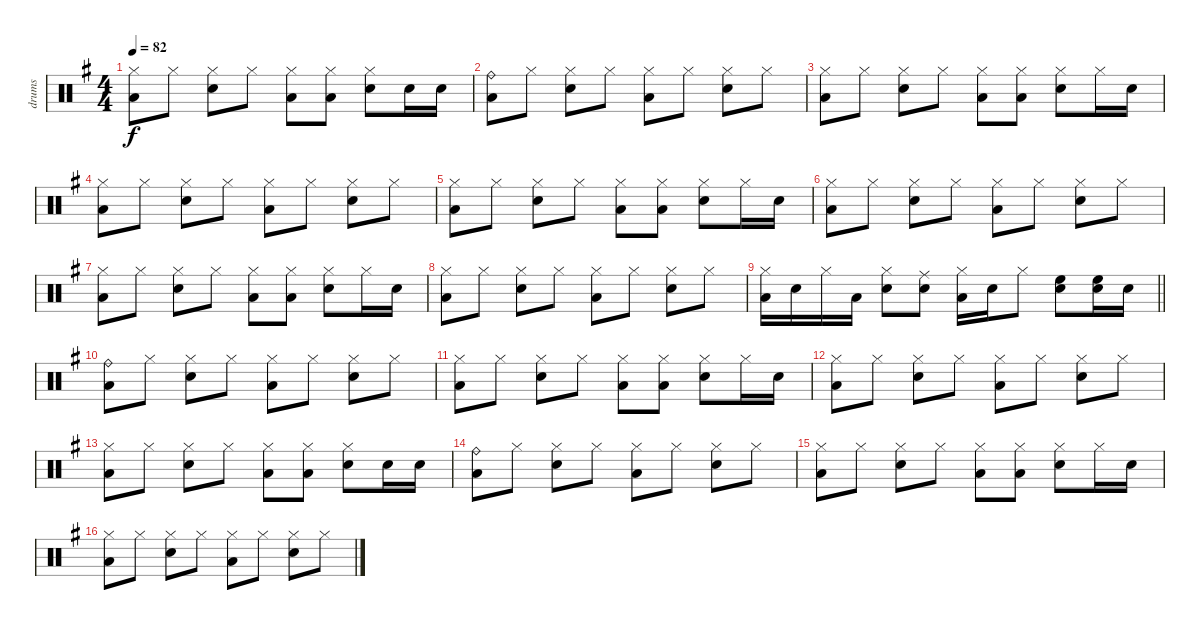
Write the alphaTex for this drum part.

\track ("drums" "drums") {instrument percussion}
\staff {score}
\articulation defaults
\ts (4 4)
\tempo 82
\clef neutral
\ks g
("Hi-Hat (closed)" "Low Floor Tom (hit)").8{dy f} "Hi-Hat (closed)".8 ("Hi-Hat (closed)" "Electric Snare (hit)").8 "Hi-Hat (closed)".8 ("Hi-Hat (closed)" "Low Floor Tom (hit)").8 ("Hi-Hat (closed)" "Low Floor Tom (hit)").8 ("Hi-Hat (closed)" "Electric Snare (hit)").8 "Electric Snare (hit)".16 "Electric Snare (hit)".16 |
("Ride (bell)" "Low Floor Tom (hit)").8 "Hi-Hat (closed)".8 ("Hi-Hat (closed)" "Electric Snare (hit)").8 "Hi-Hat (closed)".8 ("Hi-Hat (closed)" "Low Floor Tom (hit)").8 "Hi-Hat (closed)".8 ("Hi-Hat (closed)" "Electric Snare (hit)").8 "Hi-Hat (closed)".8 |
("Hi-Hat (closed)" "Low Floor Tom (hit)").8 "Hi-Hat (closed)".8 ("Hi-Hat (closed)" "Electric Snare (hit)").8 "Hi-Hat (closed)".8 ("Hi-Hat (closed)" "Low Floor Tom (hit)").8 ("Hi-Hat (closed)" "Low Floor Tom (hit)").8 ("Hi-Hat (closed)" "Electric Snare (hit)").8 "Hi-Hat (closed)".16 "Electric Snare (hit)".16 |
("Hi-Hat (closed)" "Low Floor Tom (hit)").8 "Hi-Hat (closed)".8 ("Hi-Hat (closed)" "Electric Snare (hit)").8 "Hi-Hat (closed)".8 ("Hi-Hat (closed)" "Low Floor Tom (hit)").8 "Hi-Hat (closed)".8 ("Hi-Hat (closed)" "Electric Snare (hit)").8 "Hi-Hat (closed)".8 |
("Hi-Hat (closed)" "Low Floor Tom (hit)").8 "Hi-Hat (closed)".8 ("Hi-Hat (closed)" "Electric Snare (hit)").8 "Hi-Hat (closed)".8 ("Hi-Hat (closed)" "Low Floor Tom (hit)").8 ("Hi-Hat (closed)" "Low Floor Tom (hit)").8 ("Hi-Hat (closed)" "Electric Snare (hit)").8 "Hi-Hat (closed)".16 "Electric Snare (hit)".16 |
("Hi-Hat (closed)" "Low Floor Tom (hit)").8 "Hi-Hat (closed)".8 ("Hi-Hat (closed)" "Electric Snare (hit)").8 "Hi-Hat (closed)".8 ("Hi-Hat (closed)" "Low Floor Tom (hit)").8 "Hi-Hat (closed)".8 ("Hi-Hat (closed)" "Electric Snare (hit)").8 "Hi-Hat (closed)".8 |
("Hi-Hat (closed)" "Low Floor Tom (hit)").8 "Hi-Hat (closed)".8 ("Hi-Hat (closed)" "Electric Snare (hit)").8 "Hi-Hat (closed)".8 ("Hi-Hat (closed)" "Low Floor Tom (hit)").8 ("Hi-Hat (closed)" "Low Floor Tom (hit)").8 ("Hi-Hat (closed)" "Electric Snare (hit)").8 "Hi-Hat (closed)".16 "Electric Snare (hit)".16 |
("Hi-Hat (closed)" "Low Floor Tom (hit)").8 "Hi-Hat (closed)".8 ("Hi-Hat (closed)" "Electric Snare (hit)").8 "Hi-Hat (closed)".8 ("Hi-Hat (closed)" "Low Floor Tom (hit)").8 "Hi-Hat (closed)".8 ("Hi-Hat (closed)" "Electric Snare (hit)").8 "Hi-Hat (closed)".8 |
\barLineRight lightlight
("Hi-Hat (closed)" "Low Floor Tom (hit)").16 "Electric Snare (hit)".16 "Hi-Hat (closed)".16 "Low Floor Tom (hit)".16 ("Hi-Hat (closed)" "Electric Snare (hit)").8 ("Ride (middle)" "Electric Snare (hit)").8 ("Hi-Hat (closed)" "Low Floor Tom (hit)").16 "Electric Snare (hit)".16 "Hi-Hat (closed)".8 ("High Floor Tom (hit)" "Electric Snare (hit)").8 ("High Floor Tom (hit)" "Electric Snare (hit)").16 "Electric Snare (hit)".16 |
("Ride (bell)" "Low Floor Tom (hit)").8 "Hi-Hat (closed)".8 ("Hi-Hat (closed)" "Electric Snare (hit)").8 "Hi-Hat (closed)".8 ("Hi-Hat (closed)" "Low Floor Tom (hit)").8 "Hi-Hat (closed)".8 ("Hi-Hat (closed)" "Electric Snare (hit)").8 "Hi-Hat (closed)".8 |
("Hi-Hat (closed)" "Low Floor Tom (hit)").8 "Hi-Hat (closed)".8 ("Hi-Hat (closed)" "Electric Snare (hit)").8 "Hi-Hat (closed)".8 ("Hi-Hat (closed)" "Low Floor Tom (hit)").8 ("Hi-Hat (closed)" "Low Floor Tom (hit)").8 ("Hi-Hat (closed)" "Electric Snare (hit)").8 "Hi-Hat (closed)".16 "Electric Snare (hit)".16 |
("Hi-Hat (closed)" "Low Floor Tom (hit)").8 "Hi-Hat (closed)".8 ("Hi-Hat (closed)" "Electric Snare (hit)").8 "Hi-Hat (closed)".8 ("Hi-Hat (closed)" "Low Floor Tom (hit)").8 "Hi-Hat (closed)".8 ("Hi-Hat (closed)" "Electric Snare (hit)").8 "Hi-Hat (closed)".8 |
("Hi-Hat (closed)" "Low Floor Tom (hit)").8 "Hi-Hat (closed)".8 ("Hi-Hat (closed)" "Electric Snare (hit)").8 "Hi-Hat (closed)".8 ("Hi-Hat (closed)" "Low Floor Tom (hit)").8 ("Hi-Hat (closed)" "Low Floor Tom (hit)").8 ("Hi-Hat (closed)" "Electric Snare (hit)").8 "Electric Snare (hit)".16 "Electric Snare (hit)".16 |
("Ride (bell)" "Low Floor Tom (hit)").8 "Hi-Hat (closed)".8 ("Hi-Hat (closed)" "Electric Snare (hit)").8 "Hi-Hat (closed)".8 ("Hi-Hat (closed)" "Low Floor Tom (hit)").8 "Hi-Hat (closed)".8 ("Hi-Hat (closed)" "Electric Snare (hit)").8 "Hi-Hat (closed)".8 |
("Hi-Hat (closed)" "Low Floor Tom (hit)").8 "Hi-Hat (closed)".8 ("Hi-Hat (closed)" "Electric Snare (hit)").8 "Hi-Hat (closed)".8 ("Hi-Hat (closed)" "Low Floor Tom (hit)").8 ("Hi-Hat (closed)" "Low Floor Tom (hit)").8 ("Hi-Hat (closed)" "Electric Snare (hit)").8 "Hi-Hat (closed)".16 "Electric Snare (hit)".16 |
("Hi-Hat (closed)" "Low Floor Tom (hit)").8 "Hi-Hat (closed)".8 ("Hi-Hat (closed)" "Electric Snare (hit)").8 "Hi-Hat (closed)".8 ("Hi-Hat (closed)" "Low Floor Tom (hit)").8 "Hi-Hat (closed)".8 ("Hi-Hat (closed)" "Electric Snare (hit)").8 "Hi-Hat (closed)".8
